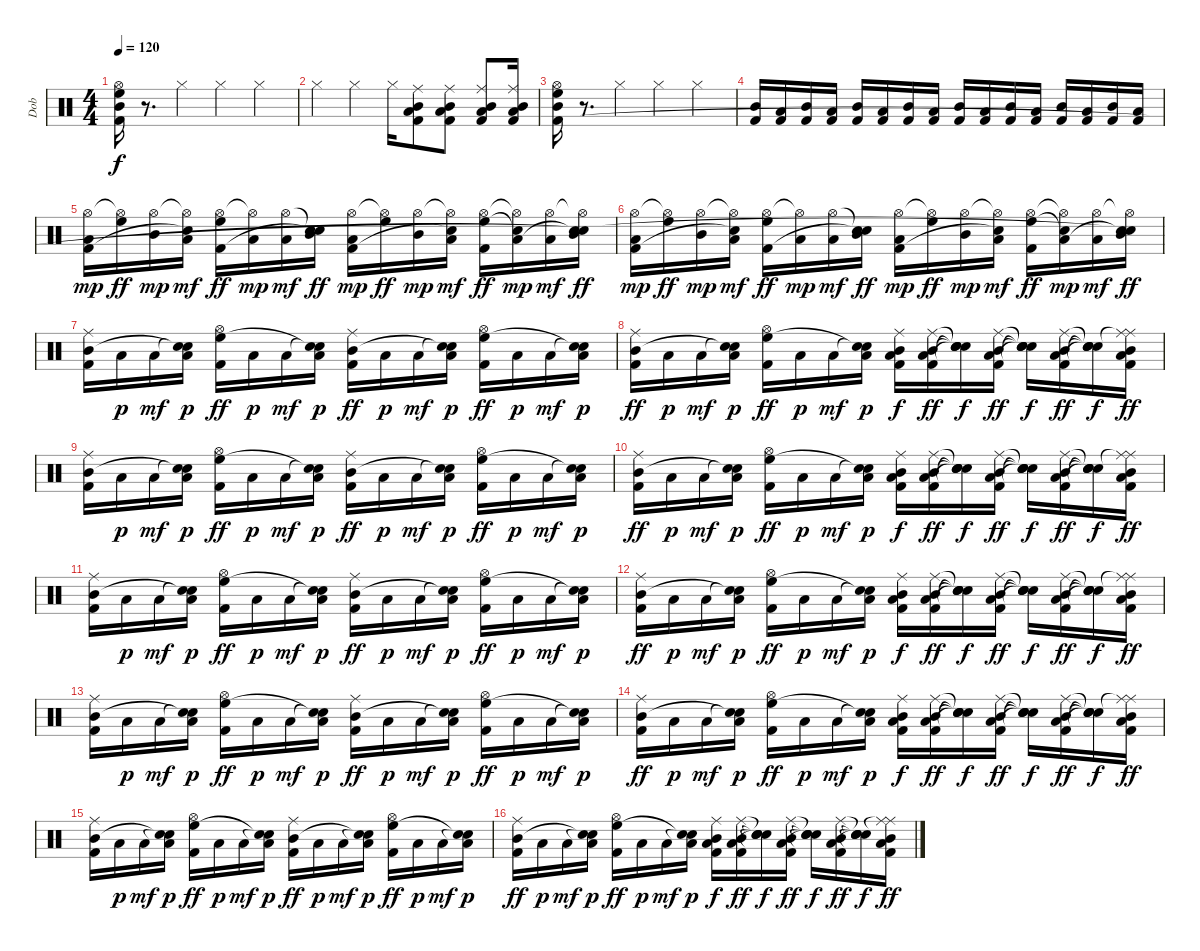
\track ("Dob" "Dob") {instrument percussion}
\staff {score}
\articulation defaults
\ts (4 4)
\tempo 120
\clef neutral
\ks c
("Hi-Hat (open)" "Mid Tom (hit)" "High Floor Tom (hit)" "Kick (hit) 2").16{dy f} r.8{d} "Hi-Hat (closed)".4 "Hi-Hat (closed)".4 "Hi-Hat (closed)".4 |
"Hi-Hat (closed)".4 "Hi-Hat (closed)".4 "Hi-Hat (closed)".16 ("Ride (middle)" "Mid Tom (hit)" "Low Tom (hit)" "Kick (hit) 2").8 ("Ride (middle)" "Mid Tom (hit)" "Low Tom (hit)" "Kick (hit) 2").8 ("Ride (middle)" "Mid Tom (hit)" "Low Tom (hit)" "Kick (hit) 2").8 ("Ride (middle)" "Mid Tom (hit)" "Low Tom (hit)" "Kick (hit) 2").16 |
("Hi-Hat (open)" "Mid Tom (hit)" "High Floor Tom (hit)" "Kick (hit) 2").16 r.8{d} "Hi-Hat (closed)".4 "Hi-Hat (closed)".4 "Hi-Hat (closed)".4 |
("Mid Tom (hit)" "Kick (hit) 2").16 ("Low Tom (hit)" "Kick (hit) 2").16 ("Mid Tom (hit)" "Kick (hit) 2").16 ("Low Tom (hit)" "Kick (hit) 2").16 ("Mid Tom (hit)" "Kick (hit) 2").16 ("Low Tom (hit)" "Kick (hit) 2").16 ("Mid Tom (hit)" "Kick (hit) 2").16 ("Low Tom (hit)" "Kick (hit) 2").16 ("Mid Tom (hit)" "Kick (hit) 2").16 ("Low Tom (hit)" "Kick (hit) 2").16 ("Mid Tom (hit)" "Kick (hit) 2").16 ("Low Tom (hit)" "Kick (hit) 2").16 ("Mid Tom (hit)" "Kick (hit) 2").16 ("Low Tom (hit)" "Kick (hit) 2").16 ("Mid Tom (hit)" "Kick (hit) 2").16 ("Low Tom (hit)" "Kick (hit) 2").16 |
("Hi-Hat (open)" "Low Tom (hit)" "Kick (hit) 2").16{dy mp} ("Hi-Hat (open)"{t} "High Floor Tom (hit)").16{dy ff} ("Hi-Hat (open)" "Mid Tom (hit)").16{dy mp} ("Hi-Hat (open)"{t} "Low Tom (hit)" "Snare (hit)"{t}).16{dy mf} ("Hi-Hat (open)" "High Floor Tom (hit)" "Kick (hit) 2").16{dy ff} ("Hi-Hat (open)"{t} "Low Tom (hit)").16{dy mp} ("Hi-Hat (open)" "Low Tom (hit)").16{dy mf} ("Snare (hit)"{t} "Mid Tom (hit)" "Snare (hit)"{t}).16{dy ff} ("Hi-Hat (open)" "Low Tom (hit)" "Kick (hit) 2").16{dy mp} ("Hi-Hat (open)"{t} "High Floor Tom (hit)").16{dy ff} ("Hi-Hat (open)" "Mid Tom (hit)").16{dy mp} ("Hi-Hat (open)"{t} "Low Tom (hit)" "Snare (hit)"{t}).16{dy mf} ("Hi-Hat (open)" "High Floor Tom (hit)" "Kick (hit) 2").16{dy ff} ("Hi-Hat (open)"{t} "Snare (hit)"{t} "Low Tom (hit)").16{dy mp} ("Hi-Hat (open)" "Low Tom (hit)").16{dy mf} ("Hi-Hat (open)"{t} "Mid Tom (hit)" "Snare (hit)"{t} "Snare (hit)"{t}).16{dy ff} |
("Hi-Hat (open)" "Low Tom (hit)" "Kick (hit) 2").16{dy mp} ("Hi-Hat (open)"{t} "High Floor Tom (hit)").16{dy ff} ("Hi-Hat (open)" "Mid Tom (hit)").16{dy mp} ("Hi-Hat (open)"{t} "Low Tom (hit)" "Snare (hit)"{t}).16{dy mf} ("Hi-Hat (open)" "High Floor Tom (hit)" "Kick (hit) 2").16{dy ff} ("Hi-Hat (open)"{t} "Low Tom (hit)").16{dy mp} ("Hi-Hat (open)" "Low Tom (hit)").16{dy mf} ("Snare (hit)"{t} "Mid Tom (hit)" "Snare (hit)"{t}).16{dy ff} ("Hi-Hat (open)" "Low Tom (hit)" "Kick (hit) 2").16{dy mp} ("Hi-Hat (open)"{t} "High Floor Tom (hit)").16{dy ff} ("Hi-Hat (open)" "Mid Tom (hit)").16{dy mp} ("Hi-Hat (open)"{t} "Low Tom (hit)" "Snare (hit)"{t}).16{dy mf} ("Hi-Hat (open)" "High Floor Tom (hit)" "Kick (hit) 2").16{dy ff} ("Hi-Hat (open)"{t} "Snare (hit)"{t} "Low Tom (hit)").16{dy mp} ("Hi-Hat (open)" "Low Tom (hit)").16{dy mf} ("Hi-Hat (open)"{t} "Mid Tom (hit)" "Snare (hit)"{t} "Snare (hit)"{t}).16{dy ff} |
("Ride (middle)" "Mid Tom (hit)" "Kick (hit) 2").16 "Low Floor Tom (hit)".16{dy p} "Low Floor Tom (hit)".16{dy mf} ("Snare (hit)"{t} "Snare (hit)"{t} "Low Floor Tom (hit)").16{dy p} ("Hi-Hat (open)" "High Floor Tom (hit)" "Kick (hit) 2").16{dy ff} "Low Floor Tom (hit)".16{dy p} "Low Floor Tom (hit)".16{dy mf} ("Snare (hit)"{t} "Snare (hit)"{t} "Low Floor Tom (hit)").16{dy p} ("Ride (middle)" "Mid Tom (hit)" "Kick (hit) 2").16{dy ff} "Low Floor Tom (hit)".16{dy p} "Low Floor Tom (hit)".16{dy mf} ("Snare (hit)"{t} "Snare (hit)"{t} "Low Floor Tom (hit)").16{dy p} ("Hi-Hat (open)" "High Floor Tom (hit)" "Kick (hit) 2").16{dy ff} "Low Floor Tom (hit)".16{dy p} "Low Floor Tom (hit)".16{dy mf} ("Snare (hit)"{t} "Snare (hit)"{t} "Low Floor Tom (hit)").16{dy p} |
("Ride (middle)" "Mid Tom (hit)" "Kick (hit) 2").16{dy ff} "Low Floor Tom (hit)".16{dy p} "Low Floor Tom (hit)".16{dy mf} ("Snare (hit)"{t} "Snare (hit)"{t} "Low Floor Tom (hit)").16{dy p} ("Hi-Hat (open)" "High Floor Tom (hit)" "Kick (hit) 2").16{dy ff} "Low Floor Tom (hit)".16{dy p} "Low Floor Tom (hit)".16{dy mf} ("Snare (hit)"{t} "Snare (hit)"{t} "Low Floor Tom (hit)").16{dy p} ("Ride (middle)" "Mid Tom (hit)" "Low Floor Tom (hit)" "Kick (hit) 2").16{dy f} ("Ride (middle)" "Mid Tom (hit)" "Low Tom (hit)" "Kick (hit) 2").16{dy ff} ("Snare (hit)"{t} "Snare (hit)"{t} "Snare (hit)"{t} "Snare (hit)"{t}).16{dy f} ("Ride (middle)" "Mid Tom (hit)" "Low Tom (hit)" "Kick (hit) 2").16{dy ff} ("Snare (hit)"{t} "Snare (hit)"{t} "Snare (hit)"{t} "Snare (hit)"{t}).16{dy f} ("Ride (middle)" "Mid Tom (hit)" "Low Tom (hit)" "Kick (hit) 2").16{dy ff} ("Snare (hit)"{t} "Snare (hit)"{t} "Snare (hit)"{t} "Snare (hit)"{t}).16{dy f} ("Ride (middle)" "Ride (middle)"{t} "Mid Tom (hit)" "Low Tom (hit)" "Kick (hit) 2").16{dy ff} |
("Ride (middle)" "Mid Tom (hit)" "Kick (hit) 2").16 "Low Floor Tom (hit)".16{dy p} "Low Floor Tom (hit)".16{dy mf} ("Snare (hit)"{t} "Snare (hit)"{t} "Low Floor Tom (hit)").16{dy p} ("Hi-Hat (open)" "High Floor Tom (hit)" "Kick (hit) 2").16{dy ff} "Low Floor Tom (hit)".16{dy p} "Low Floor Tom (hit)".16{dy mf} ("Snare (hit)"{t} "Snare (hit)"{t} "Low Floor Tom (hit)").16{dy p} ("Ride (middle)" "Mid Tom (hit)" "Kick (hit) 2").16{dy ff} "Low Floor Tom (hit)".16{dy p} "Low Floor Tom (hit)".16{dy mf} ("Snare (hit)"{t} "Snare (hit)"{t} "Low Floor Tom (hit)").16{dy p} ("Hi-Hat (open)" "High Floor Tom (hit)" "Kick (hit) 2").16{dy ff} "Low Floor Tom (hit)".16{dy p} "Low Floor Tom (hit)".16{dy mf} ("Snare (hit)"{t} "Snare (hit)"{t} "Low Floor Tom (hit)").16{dy p} |
("Ride (middle)" "Mid Tom (hit)" "Kick (hit) 2").16{dy ff} "Low Floor Tom (hit)".16{dy p} "Low Floor Tom (hit)".16{dy mf} ("Snare (hit)"{t} "Snare (hit)"{t} "Low Floor Tom (hit)").16{dy p} ("Hi-Hat (open)" "High Floor Tom (hit)" "Kick (hit) 2").16{dy ff} "Low Floor Tom (hit)".16{dy p} "Low Floor Tom (hit)".16{dy mf} ("Snare (hit)"{t} "Snare (hit)"{t} "Low Floor Tom (hit)").16{dy p} ("Ride (middle)" "Mid Tom (hit)" "Low Floor Tom (hit)" "Kick (hit) 2").16{dy f} ("Ride (middle)" "Mid Tom (hit)" "Low Tom (hit)" "Kick (hit) 2").16{dy ff} ("Snare (hit)"{t} "Snare (hit)"{t} "Snare (hit)"{t} "Snare (hit)"{t}).16{dy f} ("Ride (middle)" "Mid Tom (hit)" "Low Tom (hit)" "Kick (hit) 2").16{dy ff} ("Snare (hit)"{t} "Snare (hit)"{t} "Snare (hit)"{t} "Snare (hit)"{t}).16{dy f} ("Ride (middle)" "Mid Tom (hit)" "Low Tom (hit)" "Kick (hit) 2").16{dy ff} ("Snare (hit)"{t} "Snare (hit)"{t} "Snare (hit)"{t} "Snare (hit)"{t}).16{dy f} ("Ride (middle)" "Ride (middle)"{t} "Mid Tom (hit)" "Low Tom (hit)" "Kick (hit) 2").16{dy ff} |
("Ride (middle)" "Mid Tom (hit)" "Kick (hit) 2").16 "Low Floor Tom (hit)".16{dy p} "Low Floor Tom (hit)".16{dy mf} ("Snare (hit)"{t} "Snare (hit)"{t} "Low Floor Tom (hit)").16{dy p} ("Hi-Hat (open)" "High Floor Tom (hit)" "Kick (hit) 2").16{dy ff} "Low Floor Tom (hit)".16{dy p} "Low Floor Tom (hit)".16{dy mf} ("Snare (hit)"{t} "Snare (hit)"{t} "Low Floor Tom (hit)").16{dy p} ("Ride (middle)" "Mid Tom (hit)" "Kick (hit) 2").16{dy ff} "Low Floor Tom (hit)".16{dy p} "Low Floor Tom (hit)".16{dy mf} ("Snare (hit)"{t} "Snare (hit)"{t} "Low Floor Tom (hit)").16{dy p} ("Hi-Hat (open)" "High Floor Tom (hit)" "Kick (hit) 2").16{dy ff} "Low Floor Tom (hit)".16{dy p} "Low Floor Tom (hit)".16{dy mf} ("Snare (hit)"{t} "Snare (hit)"{t} "Low Floor Tom (hit)").16{dy p} |
("Ride (middle)" "Mid Tom (hit)" "Kick (hit) 2").16{dy ff} "Low Floor Tom (hit)".16{dy p} "Low Floor Tom (hit)".16{dy mf} ("Snare (hit)"{t} "Snare (hit)"{t} "Low Floor Tom (hit)").16{dy p} ("Hi-Hat (open)" "High Floor Tom (hit)" "Kick (hit) 2").16{dy ff} "Low Floor Tom (hit)".16{dy p} "Low Floor Tom (hit)".16{dy mf} ("Snare (hit)"{t} "Snare (hit)"{t} "Low Floor Tom (hit)").16{dy p} ("Ride (middle)" "Mid Tom (hit)" "Low Floor Tom (hit)" "Kick (hit) 2").16{dy f} ("Ride (middle)" "Mid Tom (hit)" "Low Tom (hit)" "Kick (hit) 2").16{dy ff} ("Snare (hit)"{t} "Snare (hit)"{t} "Snare (hit)"{t} "Snare (hit)"{t}).16{dy f} ("Ride (middle)" "Mid Tom (hit)" "Low Tom (hit)" "Kick (hit) 2").16{dy ff} ("Snare (hit)"{t} "Snare (hit)"{t} "Snare (hit)"{t} "Snare (hit)"{t}).16{dy f} ("Ride (middle)" "Mid Tom (hit)" "Low Tom (hit)" "Kick (hit) 2").16{dy ff} ("Snare (hit)"{t} "Snare (hit)"{t} "Snare (hit)"{t} "Snare (hit)"{t}).16{dy f} ("Ride (middle)" "Ride (middle)"{t} "Mid Tom (hit)" "Low Tom (hit)" "Kick (hit) 2").16{dy ff} |
("Ride (middle)" "Mid Tom (hit)" "Kick (hit) 2").16 "Low Floor Tom (hit)".16{dy p} "Low Floor Tom (hit)".16{dy mf} ("Snare (hit)"{t} "Snare (hit)"{t} "Low Floor Tom (hit)").16{dy p} ("Hi-Hat (open)" "High Floor Tom (hit)" "Kick (hit) 2").16{dy ff} "Low Floor Tom (hit)".16{dy p} "Low Floor Tom (hit)".16{dy mf} ("Snare (hit)"{t} "Snare (hit)"{t} "Low Floor Tom (hit)").16{dy p} ("Ride (middle)" "Mid Tom (hit)" "Kick (hit) 2").16{dy ff} "Low Floor Tom (hit)".16{dy p} "Low Floor Tom (hit)".16{dy mf} ("Snare (hit)"{t} "Snare (hit)"{t} "Low Floor Tom (hit)").16{dy p} ("Hi-Hat (open)" "High Floor Tom (hit)" "Kick (hit) 2").16{dy ff} "Low Floor Tom (hit)".16{dy p} "Low Floor Tom (hit)".16{dy mf} ("Snare (hit)"{t} "Snare (hit)"{t} "Low Floor Tom (hit)").16{dy p} |
("Ride (middle)" "Mid Tom (hit)" "Kick (hit) 2").16{dy ff} "Low Floor Tom (hit)".16{dy p} "Low Floor Tom (hit)".16{dy mf} ("Snare (hit)"{t} "Snare (hit)"{t} "Low Floor Tom (hit)").16{dy p} ("Hi-Hat (open)" "High Floor Tom (hit)" "Kick (hit) 2").16{dy ff} "Low Floor Tom (hit)".16{dy p} "Low Floor Tom (hit)".16{dy mf} ("Snare (hit)"{t} "Snare (hit)"{t} "Low Floor Tom (hit)").16{dy p} ("Ride (middle)" "Mid Tom (hit)" "Low Floor Tom (hit)" "Kick (hit) 2").16{dy f} ("Ride (middle)" "Mid Tom (hit)" "Low Tom (hit)" "Kick (hit) 2").16{dy ff} ("Snare (hit)"{t} "Snare (hit)"{t} "Snare (hit)"{t} "Snare (hit)"{t}).16{dy f} ("Ride (middle)" "Mid Tom (hit)" "Low Tom (hit)" "Kick (hit) 2").16{dy ff} ("Snare (hit)"{t} "Snare (hit)"{t} "Snare (hit)"{t} "Snare (hit)"{t}).16{dy f} ("Ride (middle)" "Mid Tom (hit)" "Low Tom (hit)" "Kick (hit) 2").16{dy ff} ("Snare (hit)"{t} "Snare (hit)"{t} "Snare (hit)"{t} "Snare (hit)"{t}).16{dy f} ("Ride (middle)" "Ride (middle)"{t} "Mid Tom (hit)" "Low Tom (hit)" "Kick (hit) 2").16{dy ff} |
("Ride (middle)" "Mid Tom (hit)" "Kick (hit) 2").16 "Low Floor Tom (hit)".16{dy p} "Low Floor Tom (hit)".16{dy mf} ("Snare (hit)"{t} "Snare (hit)"{t} "Low Floor Tom (hit)").16{dy p} ("Hi-Hat (open)" "High Floor Tom (hit)" "Kick (hit) 2").16{dy ff} "Low Floor Tom (hit)".16{dy p} "Low Floor Tom (hit)".16{dy mf} ("Snare (hit)"{t} "Snare (hit)"{t} "Low Floor Tom (hit)").16{dy p} ("Ride (middle)" "Mid Tom (hit)" "Kick (hit) 2").16{dy ff} "Low Floor Tom (hit)".16{dy p} "Low Floor Tom (hit)".16{dy mf} ("Snare (hit)"{t} "Snare (hit)"{t} "Low Floor Tom (hit)").16{dy p} ("Hi-Hat (open)" "High Floor Tom (hit)" "Kick (hit) 2").16{dy ff} "Low Floor Tom (hit)".16{dy p} "Low Floor Tom (hit)".16{dy mf} ("Snare (hit)"{t} "Snare (hit)"{t} "Low Floor Tom (hit)").16{dy p} |
("Ride (middle)" "Mid Tom (hit)" "Kick (hit) 2").16{dy ff} "Low Floor Tom (hit)".16{dy p} "Low Floor Tom (hit)".16{dy mf} ("Snare (hit)"{t} "Snare (hit)"{t} "Low Floor Tom (hit)").16{dy p} ("Hi-Hat (open)" "High Floor Tom (hit)" "Kick (hit) 2").16{dy ff} "Low Floor Tom (hit)".16{dy p} "Low Floor Tom (hit)".16{dy mf} ("Snare (hit)"{t} "Snare (hit)"{t} "Low Floor Tom (hit)").16{dy p} ("Ride (middle)" "Mid Tom (hit)" "Low Floor Tom (hit)" "Kick (hit) 2").16{dy f} ("Ride (middle)" "Mid Tom (hit)" "Low Tom (hit)" "Kick (hit) 2").16{dy ff} ("Snare (hit)"{t} "Snare (hit)"{t} "Snare (hit)"{t} "Snare (hit)"{t}).16{dy f} ("Ride (middle)" "Mid Tom (hit)" "Low Tom (hit)" "Kick (hit) 2").16{dy ff} ("Snare (hit)"{t} "Snare (hit)"{t} "Snare (hit)"{t} "Snare (hit)"{t}).16{dy f} ("Ride (middle)" "Mid Tom (hit)" "Low Tom (hit)" "Kick (hit) 2").16{dy ff} ("Snare (hit)"{t} "Snare (hit)"{t} "Snare (hit)"{t} "Snare (hit)"{t}).16{dy f} ("Ride (middle)" "Ride (middle)"{t} "Mid Tom (hit)" "Low Tom (hit)" "Kick (hit) 2").16{dy ff}
